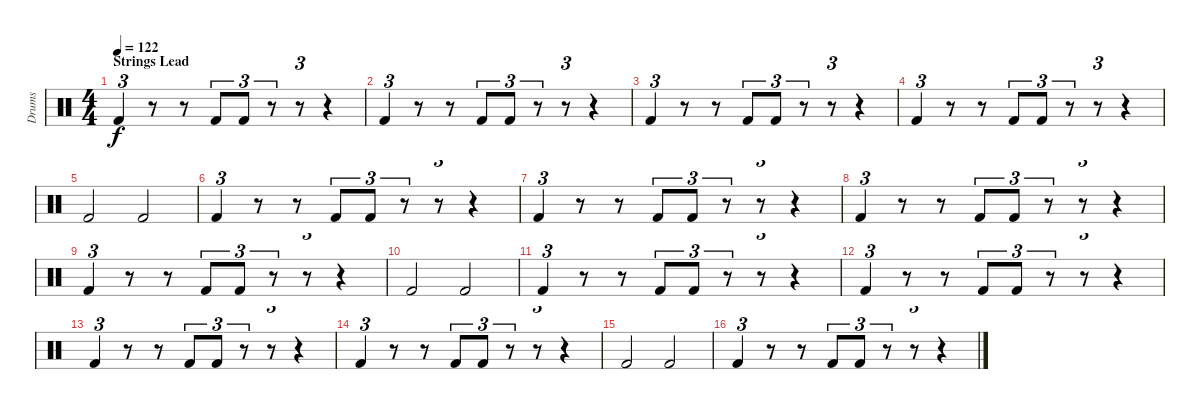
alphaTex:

\track ("Drums" "Drums") {instrument percussion}
\staff {score}
\articulation defaults
\ts (4 4)
\section ("" "Strings Lead")
\tempo 122
\clef neutral
\ks c "Kick (hit) 2".4{tu (3 2) dy f}
r.8 r.8 "Kick (hit) 2".8{tu (3 2)} "Kick (hit) 2".8{tu (3 2)} r.8{tu (3 2)} r.8{tu (3 2)} r.4 |
"Kick (hit) 2".4{tu (3 2)} r.8 r.8 "Kick (hit) 2".8{tu (3 2)} "Kick (hit) 2".8{tu (3 2)} r.8{tu (3 2)} r.8{tu (3 2)} r.4 |
"Kick (hit) 2".4{tu (3 2)} r.8 r.8 "Kick (hit) 2".8{tu (3 2)} "Kick (hit) 2".8{tu (3 2)} r.8{tu (3 2)} r.8{tu (3 2)} r.4 |
"Kick (hit) 2".4{tu (3 2)} r.8 r.8 "Kick (hit) 2".8{tu (3 2)} "Kick (hit) 2".8{tu (3 2)} r.8{tu (3 2)} r.8{tu (3 2)} r.4 |
"Kick (hit) 2".2 "Kick (hit) 2".2 |
"Kick (hit) 2".4{tu (3 2)} r.8 r.8 "Kick (hit) 2".8{tu (3 2)} "Kick (hit) 2".8{tu (3 2)} r.8{tu (3 2)} r.8{tu (3 2)} r.4 |
"Kick (hit) 2".4{tu (3 2)} r.8 r.8 "Kick (hit) 2".8{tu (3 2)} "Kick (hit) 2".8{tu (3 2)} r.8{tu (3 2)} r.8{tu (3 2)} r.4 |
"Kick (hit) 2".4{tu (3 2)} r.8 r.8 "Kick (hit) 2".8{tu (3 2)} "Kick (hit) 2".8{tu (3 2)} r.8{tu (3 2)} r.8{tu (3 2)} r.4 |
"Kick (hit) 2".4{tu (3 2)} r.8 r.8 "Kick (hit) 2".8{tu (3 2)} "Kick (hit) 2".8{tu (3 2)} r.8{tu (3 2)} r.8{tu (3 2)} r.4 |
"Kick (hit) 2".2 "Kick (hit) 2".2 |
"Kick (hit) 2".4{tu (3 2)} r.8 r.8 "Kick (hit) 2".8{tu (3 2)} "Kick (hit) 2".8{tu (3 2)} r.8{tu (3 2)} r.8{tu (3 2)} r.4 |
"Kick (hit) 2".4{tu (3 2)} r.8 r.8 "Kick (hit) 2".8{tu (3 2)} "Kick (hit) 2".8{tu (3 2)} r.8{tu (3 2)} r.8{tu (3 2)} r.4 |
"Kick (hit) 2".4{tu (3 2)} r.8 r.8 "Kick (hit) 2".8{tu (3 2)} "Kick (hit) 2".8{tu (3 2)} r.8{tu (3 2)} r.8{tu (3 2)} r.4 |
"Kick (hit) 2".4{tu (3 2)} r.8 r.8 "Kick (hit) 2".8{tu (3 2)} "Kick (hit) 2".8{tu (3 2)} r.8{tu (3 2)} r.8{tu (3 2)} r.4 |
"Kick (hit) 2".2 "Kick (hit) 2".2 |
"Kick (hit) 2".4{tu (3 2)} r.8 r.8 "Kick (hit) 2".8{tu (3 2)} "Kick (hit) 2".8{tu (3 2)} r.8{tu (3 2)} r.8{tu (3 2)} r.4
